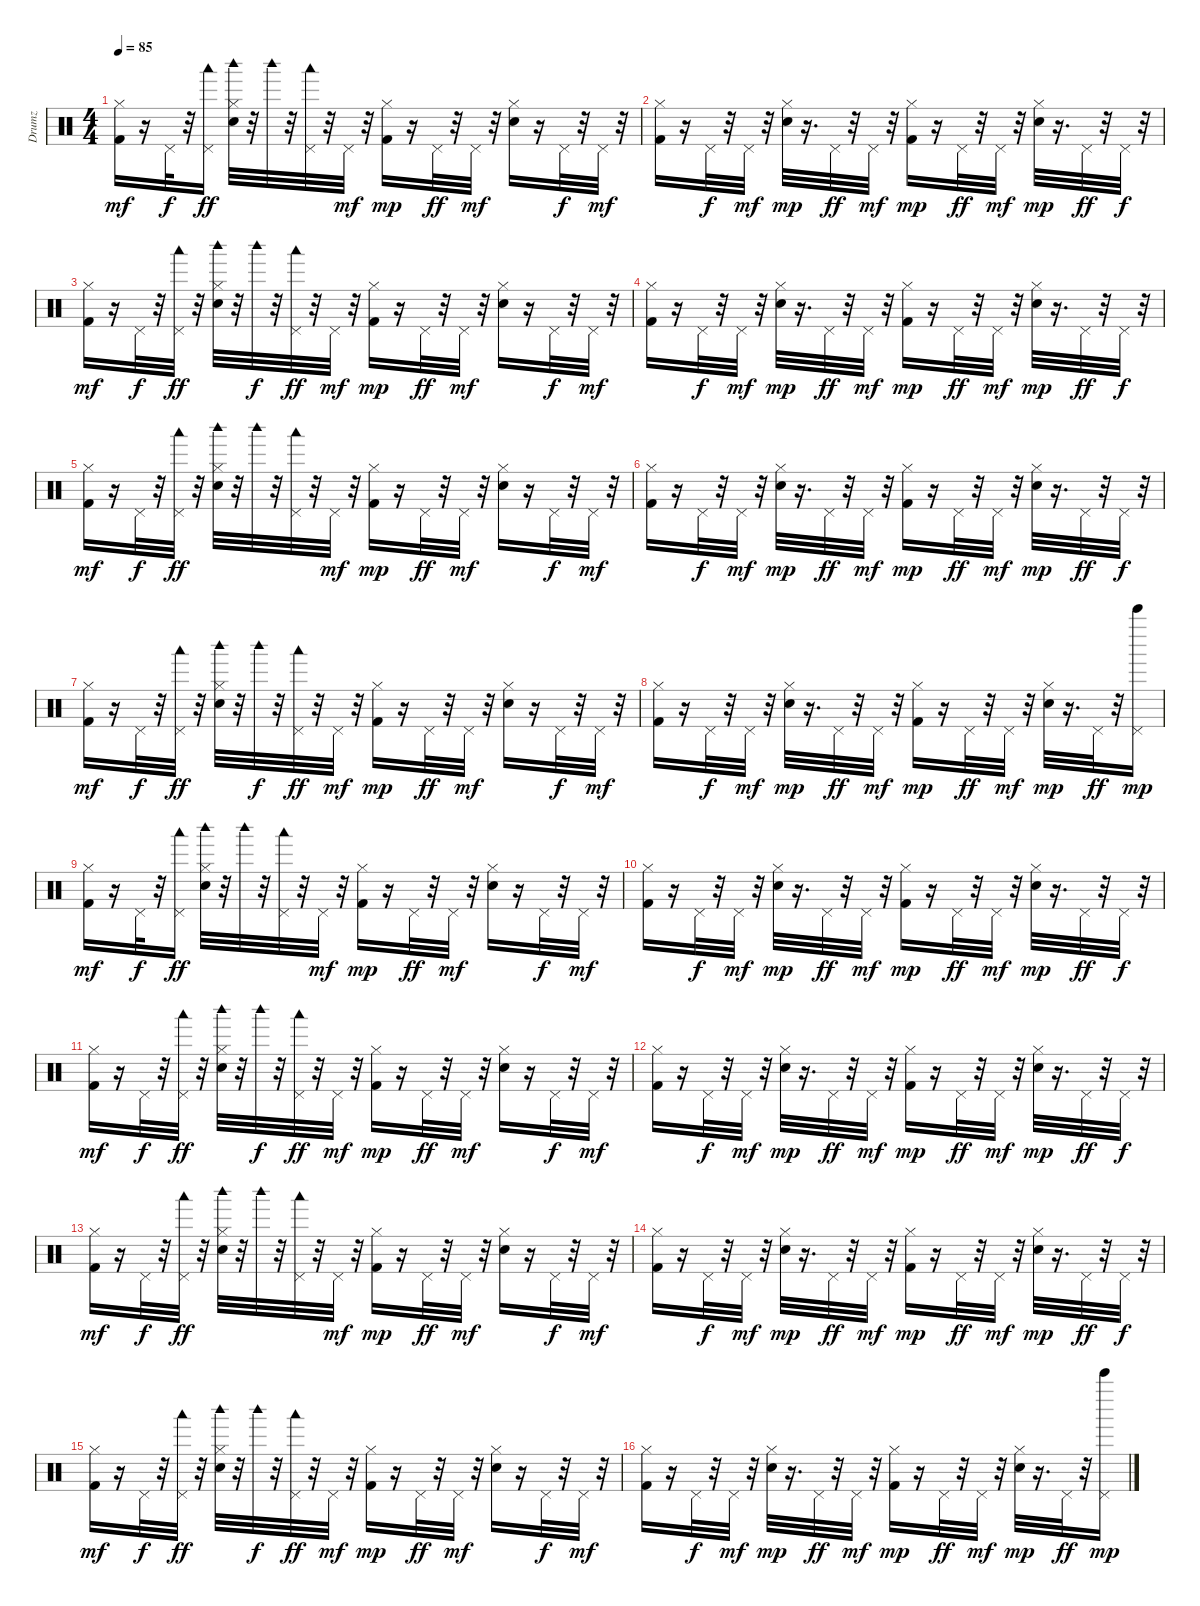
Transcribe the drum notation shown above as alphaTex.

\track ("Drumz" "Drumz") {instrument percussion}
\staff {score}
\articulation defaults
\ts (4 4)
\tempo 85
\clef neutral
\ks c
("Kick (hit) 2" "Hi-Hat (closed)").16{dy mf volume 12} r.16 "Pedal Hi-Hat (hit)".32{dy f} r.32 ("Pedal Hi-Hat (hit)" "Woodblock low (hit)").16{dy ff} ("Hand Clap (hit)" "Hi-Hat (closed)" "Woodblock high (hit)").32 r.32 "Woodblock high (hit)".32 r.32 ("Pedal Hi-Hat (hit)" "Woodblock low (hit)").32 r.32 "Pedal Hi-Hat (hit)".32{dy mf} r.32 ("Kick (hit) 2" "Hi-Hat (closed)").16{dy mp} r.16 "Pedal Hi-Hat (hit)".32{dy ff} r.32 "Pedal Hi-Hat (hit)".32{dy mf} r.32 ("Hand Clap (hit)" "Hi-Hat (closed)").16 r.16 "Pedal Hi-Hat (hit)".32{dy f} r.32 "Pedal Hi-Hat (hit)".32{dy mf} r.32 |
("Kick (hit) 2" "Hi-Hat (closed)").16 r.16 "Pedal Hi-Hat (hit)".32{dy f} r.32 "Pedal Hi-Hat (hit)".32{dy mf} r.32 ("Hand Clap (hit)" "Hi-Hat (closed)").32{dy mp} r.16{d} "Pedal Hi-Hat (hit)".32{dy ff} r.32 "Pedal Hi-Hat (hit)".32{dy mf} r.32 ("Kick (hit) 2" "Hi-Hat (closed)").16{dy mp} r.16 "Pedal Hi-Hat (hit)".32{dy ff} r.32 "Pedal Hi-Hat (hit)".32{dy mf} r.32 ("Hand Clap (hit)" "Hi-Hat (closed)").32{dy mp} r.16{d} "Pedal Hi-Hat (hit)".32{dy ff} r.32 "Pedal Hi-Hat (hit)".32{dy f} r.32 |
("Kick (hit) 2" "Hi-Hat (closed)").16{dy mf} r.16 "Pedal Hi-Hat (hit)".32{dy f} r.32 ("Pedal Hi-Hat (hit)" "Woodblock low (hit)").32{dy ff} r.32 ("Hand Clap (hit)" "Hi-Hat (closed)" "Woodblock high (hit)").32 r.32 "Woodblock high (hit)".32{dy f} r.32 ("Pedal Hi-Hat (hit)" "Woodblock low (hit)").32{dy ff} r.32 "Pedal Hi-Hat (hit)".32{dy mf} r.32 ("Kick (hit) 2" "Hi-Hat (closed)").16{dy mp} r.16 "Pedal Hi-Hat (hit)".32{dy ff} r.32 "Pedal Hi-Hat (hit)".32{dy mf} r.32 ("Hand Clap (hit)" "Hi-Hat (closed)").16 r.16 "Pedal Hi-Hat (hit)".32{dy f} r.32 "Pedal Hi-Hat (hit)".32{dy mf} r.32 |
("Kick (hit) 2" "Hi-Hat (closed)").16 r.16 "Pedal Hi-Hat (hit)".32{dy f} r.32 "Pedal Hi-Hat (hit)".32{dy mf} r.32 ("Hand Clap (hit)" "Hi-Hat (closed)").32{dy mp} r.16{d} "Pedal Hi-Hat (hit)".32{dy ff} r.32 "Pedal Hi-Hat (hit)".32{dy mf} r.32 ("Kick (hit) 2" "Hi-Hat (closed)").16{dy mp} r.16 "Pedal Hi-Hat (hit)".32{dy ff} r.32 "Pedal Hi-Hat (hit)".32{dy mf} r.32 ("Hand Clap (hit)" "Hi-Hat (closed)").32{dy mp} r.16{d} "Pedal Hi-Hat (hit)".32{dy ff} r.32 "Pedal Hi-Hat (hit)".32{dy f} r.32 |
("Kick (hit) 2" "Hi-Hat (closed)").16{dy mf} r.16 "Pedal Hi-Hat (hit)".32{dy f} r.32 ("Pedal Hi-Hat (hit)" "Woodblock low (hit)").32{dy ff} r.32 ("Hand Clap (hit)" "Hi-Hat (closed)" "Woodblock high (hit)").32 r.32 "Woodblock high (hit)".32 r.32 ("Pedal Hi-Hat (hit)" "Woodblock low (hit)").32 r.32 "Pedal Hi-Hat (hit)".32{dy mf} r.32 ("Kick (hit) 2" "Hi-Hat (closed)").16{dy mp} r.16 "Pedal Hi-Hat (hit)".32{dy ff} r.32 "Pedal Hi-Hat (hit)".32{dy mf} r.32 ("Hand Clap (hit)" "Hi-Hat (closed)").16 r.16 "Pedal Hi-Hat (hit)".32{dy f} r.32 "Pedal Hi-Hat (hit)".32{dy mf} r.32 |
("Kick (hit) 2" "Hi-Hat (closed)").16 r.16 "Pedal Hi-Hat (hit)".32{dy f} r.32 "Pedal Hi-Hat (hit)".32{dy mf} r.32 ("Hand Clap (hit)" "Hi-Hat (closed)").32{dy mp} r.16{d} "Pedal Hi-Hat (hit)".32{dy ff} r.32 "Pedal Hi-Hat (hit)".32{dy mf} r.32 ("Kick (hit) 2" "Hi-Hat (closed)").16{dy mp} r.16 "Pedal Hi-Hat (hit)".32{dy ff} r.32 "Pedal Hi-Hat (hit)".32{dy mf} r.32 ("Hand Clap (hit)" "Hi-Hat (closed)").32{dy mp} r.16{d} "Pedal Hi-Hat (hit)".32{dy ff} r.32 "Pedal Hi-Hat (hit)".32{dy f} r.32 |
("Kick (hit) 2" "Hi-Hat (closed)").16{dy mf} r.16 "Pedal Hi-Hat (hit)".32{dy f} r.32 ("Pedal Hi-Hat (hit)" "Woodblock low (hit)").32{dy ff} r.32 ("Hand Clap (hit)" "Hi-Hat (closed)" "Woodblock high (hit)").32 r.32 "Woodblock high (hit)".32{dy f} r.32 ("Pedal Hi-Hat (hit)" "Woodblock low (hit)").32{dy ff} r.32 "Pedal Hi-Hat (hit)".32{dy mf} r.32 ("Kick (hit) 2" "Hi-Hat (closed)").16{dy mp} r.16 "Pedal Hi-Hat (hit)".32{dy ff} r.32 "Pedal Hi-Hat (hit)".32{dy mf} r.32 ("Hand Clap (hit)" "Hi-Hat (closed)").16 r.16 "Pedal Hi-Hat (hit)".32{dy f} r.32 "Pedal Hi-Hat (hit)".32{dy mf} r.32 |
("Kick (hit) 2" "Hi-Hat (closed)").16 r.16 "Pedal Hi-Hat (hit)".32{dy f} r.32 "Pedal Hi-Hat (hit)".32{dy mf} r.32 ("Hand Clap (hit)" "Hi-Hat (closed)").32{dy mp} r.16{d} "Pedal Hi-Hat (hit)".32{dy ff} r.32 "Pedal Hi-Hat (hit)".32{dy mf} r.32 ("Kick (hit) 2" "Hi-Hat (closed)").16{dy mp} r.16 "Pedal Hi-Hat (hit)".32{dy ff} r.32 "Pedal Hi-Hat (hit)".32{dy mf} r.32 ("Hand Clap (hit)" "Hi-Hat (closed)").32{dy mp} r.16{d} "Pedal Hi-Hat (hit)".32{dy ff} r.32 ("Pedal Hi-Hat (hit)" "Bell Tree (hit)").16{dy mp} |
("Kick (hit) 2" "Hi-Hat (closed)").16{dy mf volume 12} r.16 "Pedal Hi-Hat (hit)".32{dy f} r.32 ("Pedal Hi-Hat (hit)" "Woodblock low (hit)").16{dy ff} ("Hand Clap (hit)" "Hi-Hat (closed)" "Woodblock high (hit)").32 r.32 "Woodblock high (hit)".32 r.32 ("Pedal Hi-Hat (hit)" "Woodblock low (hit)").32 r.32 "Pedal Hi-Hat (hit)".32{dy mf} r.32 ("Kick (hit) 2" "Hi-Hat (closed)").16{dy mp} r.16 "Pedal Hi-Hat (hit)".32{dy ff} r.32 "Pedal Hi-Hat (hit)".32{dy mf} r.32 ("Hand Clap (hit)" "Hi-Hat (closed)").16 r.16 "Pedal Hi-Hat (hit)".32{dy f} r.32 "Pedal Hi-Hat (hit)".32{dy mf} r.32 |
("Kick (hit) 2" "Hi-Hat (closed)").16 r.16 "Pedal Hi-Hat (hit)".32{dy f} r.32 "Pedal Hi-Hat (hit)".32{dy mf} r.32 ("Hand Clap (hit)" "Hi-Hat (closed)").32{dy mp} r.16{d} "Pedal Hi-Hat (hit)".32{dy ff} r.32 "Pedal Hi-Hat (hit)".32{dy mf} r.32 ("Kick (hit) 2" "Hi-Hat (closed)").16{dy mp} r.16 "Pedal Hi-Hat (hit)".32{dy ff} r.32 "Pedal Hi-Hat (hit)".32{dy mf} r.32 ("Hand Clap (hit)" "Hi-Hat (closed)").32{dy mp} r.16{d} "Pedal Hi-Hat (hit)".32{dy ff} r.32 "Pedal Hi-Hat (hit)".32{dy f} r.32 |
("Kick (hit) 2" "Hi-Hat (closed)").16{dy mf} r.16 "Pedal Hi-Hat (hit)".32{dy f} r.32 ("Pedal Hi-Hat (hit)" "Woodblock low (hit)").32{dy ff} r.32 ("Hand Clap (hit)" "Hi-Hat (closed)" "Woodblock high (hit)").32 r.32 "Woodblock high (hit)".32{dy f} r.32 ("Pedal Hi-Hat (hit)" "Woodblock low (hit)").32{dy ff} r.32 "Pedal Hi-Hat (hit)".32{dy mf} r.32 ("Kick (hit) 2" "Hi-Hat (closed)").16{dy mp} r.16 "Pedal Hi-Hat (hit)".32{dy ff} r.32 "Pedal Hi-Hat (hit)".32{dy mf} r.32 ("Hand Clap (hit)" "Hi-Hat (closed)").16 r.16 "Pedal Hi-Hat (hit)".32{dy f} r.32 "Pedal Hi-Hat (hit)".32{dy mf} r.32 |
("Kick (hit) 2" "Hi-Hat (closed)").16 r.16 "Pedal Hi-Hat (hit)".32{dy f} r.32 "Pedal Hi-Hat (hit)".32{dy mf} r.32 ("Hand Clap (hit)" "Hi-Hat (closed)").32{dy mp} r.16{d} "Pedal Hi-Hat (hit)".32{dy ff} r.32 "Pedal Hi-Hat (hit)".32{dy mf} r.32 ("Kick (hit) 2" "Hi-Hat (closed)").16{dy mp} r.16 "Pedal Hi-Hat (hit)".32{dy ff} r.32 "Pedal Hi-Hat (hit)".32{dy mf} r.32 ("Hand Clap (hit)" "Hi-Hat (closed)").32{dy mp} r.16{d} "Pedal Hi-Hat (hit)".32{dy ff} r.32 "Pedal Hi-Hat (hit)".32{dy f} r.32 |
("Kick (hit) 2" "Hi-Hat (closed)").16{dy mf} r.16 "Pedal Hi-Hat (hit)".32{dy f} r.32 ("Pedal Hi-Hat (hit)" "Woodblock low (hit)").32{dy ff} r.32 ("Hand Clap (hit)" "Hi-Hat (closed)" "Woodblock high (hit)").32 r.32 "Woodblock high (hit)".32 r.32 ("Pedal Hi-Hat (hit)" "Woodblock low (hit)").32 r.32 "Pedal Hi-Hat (hit)".32{dy mf} r.32 ("Kick (hit) 2" "Hi-Hat (closed)").16{dy mp} r.16 "Pedal Hi-Hat (hit)".32{dy ff} r.32 "Pedal Hi-Hat (hit)".32{dy mf} r.32 ("Hand Clap (hit)" "Hi-Hat (closed)").16 r.16 "Pedal Hi-Hat (hit)".32{dy f} r.32 "Pedal Hi-Hat (hit)".32{dy mf} r.32 |
("Kick (hit) 2" "Hi-Hat (closed)").16 r.16 "Pedal Hi-Hat (hit)".32{dy f} r.32 "Pedal Hi-Hat (hit)".32{dy mf} r.32 ("Hand Clap (hit)" "Hi-Hat (closed)").32{dy mp} r.16{d} "Pedal Hi-Hat (hit)".32{dy ff} r.32 "Pedal Hi-Hat (hit)".32{dy mf} r.32 ("Kick (hit) 2" "Hi-Hat (closed)").16{dy mp} r.16 "Pedal Hi-Hat (hit)".32{dy ff} r.32 "Pedal Hi-Hat (hit)".32{dy mf} r.32 ("Hand Clap (hit)" "Hi-Hat (closed)").32{dy mp} r.16{d} "Pedal Hi-Hat (hit)".32{dy ff} r.32 "Pedal Hi-Hat (hit)".32{dy f} r.32 |
("Kick (hit) 2" "Hi-Hat (closed)").16{dy mf} r.16 "Pedal Hi-Hat (hit)".32{dy f} r.32 ("Pedal Hi-Hat (hit)" "Woodblock low (hit)").32{dy ff} r.32 ("Hand Clap (hit)" "Hi-Hat (closed)" "Woodblock high (hit)").32 r.32 "Woodblock high (hit)".32{dy f} r.32 ("Pedal Hi-Hat (hit)" "Woodblock low (hit)").32{dy ff} r.32 "Pedal Hi-Hat (hit)".32{dy mf} r.32 ("Kick (hit) 2" "Hi-Hat (closed)").16{dy mp} r.16 "Pedal Hi-Hat (hit)".32{dy ff} r.32 "Pedal Hi-Hat (hit)".32{dy mf} r.32 ("Hand Clap (hit)" "Hi-Hat (closed)").16 r.16 "Pedal Hi-Hat (hit)".32{dy f} r.32 "Pedal Hi-Hat (hit)".32{dy mf} r.32 |
("Kick (hit) 2" "Hi-Hat (closed)").16 r.16 "Pedal Hi-Hat (hit)".32{dy f} r.32 "Pedal Hi-Hat (hit)".32{dy mf} r.32 ("Hand Clap (hit)" "Hi-Hat (closed)").32{dy mp} r.16{d} "Pedal Hi-Hat (hit)".32{dy ff} r.32 "Pedal Hi-Hat (hit)".32{dy mf} r.32 ("Kick (hit) 2" "Hi-Hat (closed)").16{dy mp} r.16 "Pedal Hi-Hat (hit)".32{dy ff} r.32 "Pedal Hi-Hat (hit)".32{dy mf} r.32 ("Hand Clap (hit)" "Hi-Hat (closed)").32{dy mp} r.16{d} "Pedal Hi-Hat (hit)".32{dy ff} r.32 ("Pedal Hi-Hat (hit)" "Bell Tree (hit)").16{dy mp}
